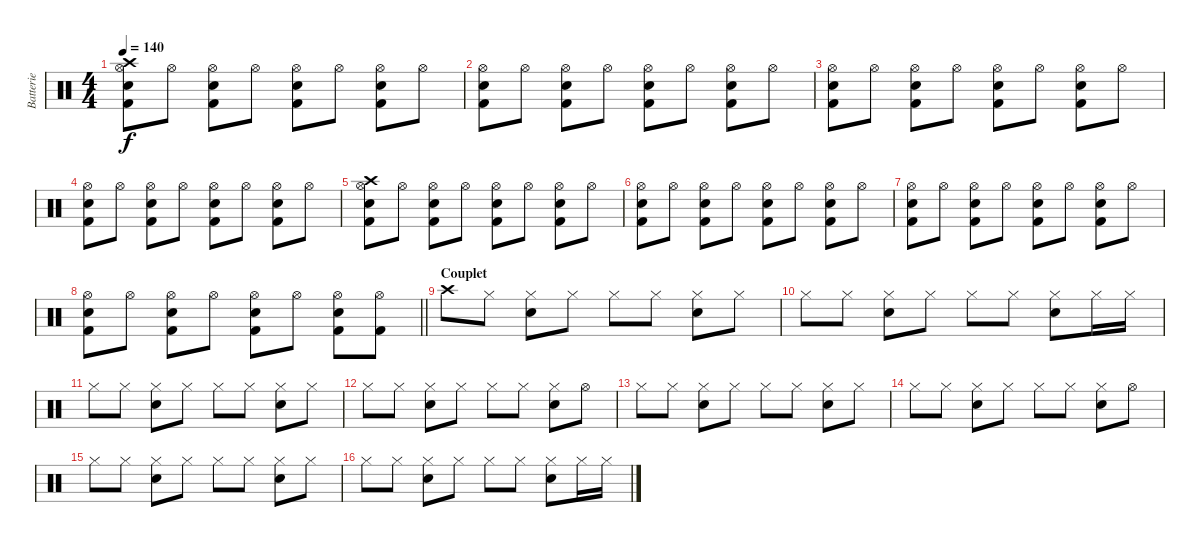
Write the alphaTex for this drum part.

\track ("Batterie" "Batterie") {instrument percussion}
\staff {score}
\articulation defaults
\ts (4 4)
\tempo 140
\clef neutral
\ks c
("Crash high (hit)" "Hi-Hat (open)" "Electric Snare (hit)" "Kick (hit) 2").8{dy f} "Hi-Hat (open)".8 ("Hi-Hat (open)" "Electric Snare (hit)" "Kick (hit) 2").8 "Hi-Hat (open)".8 ("Hi-Hat (open)" "Electric Snare (hit)" "Kick (hit) 2").8 "Hi-Hat (open)".8 ("Hi-Hat (open)" "Electric Snare (hit)" "Kick (hit) 2").8 "Hi-Hat (open)".8 |
("Hi-Hat (open)" "Electric Snare (hit)" "Kick (hit) 2").8 "Hi-Hat (open)".8 ("Hi-Hat (open)" "Electric Snare (hit)" "Kick (hit) 2").8 "Hi-Hat (open)".8 ("Hi-Hat (open)" "Electric Snare (hit)" "Kick (hit) 2").8 "Hi-Hat (open)".8 ("Hi-Hat (open)" "Electric Snare (hit)" "Kick (hit) 2").8 "Hi-Hat (open)".8 |
("Hi-Hat (open)" "Electric Snare (hit)" "Kick (hit) 2").8 "Hi-Hat (open)".8 ("Hi-Hat (open)" "Electric Snare (hit)" "Kick (hit) 2").8 "Hi-Hat (open)".8 ("Hi-Hat (open)" "Electric Snare (hit)" "Kick (hit) 2").8 "Hi-Hat (open)".8 ("Hi-Hat (open)" "Electric Snare (hit)" "Kick (hit) 2").8 "Hi-Hat (open)".8 |
("Hi-Hat (open)" "Electric Snare (hit)" "Kick (hit) 2").8 "Hi-Hat (open)".8 ("Hi-Hat (open)" "Electric Snare (hit)" "Kick (hit) 2").8 "Hi-Hat (open)".8 ("Hi-Hat (open)" "Electric Snare (hit)" "Kick (hit) 2").8 "Hi-Hat (open)".8 ("Hi-Hat (open)" "Electric Snare (hit)" "Kick (hit) 2").8 "Hi-Hat (open)".8 |
("Crash high (hit)" "Hi-Hat (open)" "Electric Snare (hit)" "Kick (hit) 2").8 "Hi-Hat (open)".8 ("Hi-Hat (open)" "Electric Snare (hit)" "Kick (hit) 2").8 "Hi-Hat (open)".8 ("Hi-Hat (open)" "Electric Snare (hit)" "Kick (hit) 2").8 "Hi-Hat (open)".8 ("Hi-Hat (open)" "Electric Snare (hit)" "Kick (hit) 2").8 "Hi-Hat (open)".8 |
("Hi-Hat (open)" "Electric Snare (hit)" "Kick (hit) 2").8 "Hi-Hat (open)".8 ("Hi-Hat (open)" "Electric Snare (hit)" "Kick (hit) 2").8 "Hi-Hat (open)".8 ("Hi-Hat (open)" "Electric Snare (hit)" "Kick (hit) 2").8 "Hi-Hat (open)".8 ("Hi-Hat (open)" "Electric Snare (hit)" "Kick (hit) 2").8 "Hi-Hat (open)".8 |
("Hi-Hat (open)" "Electric Snare (hit)" "Kick (hit) 2").8 "Hi-Hat (open)".8 ("Hi-Hat (open)" "Electric Snare (hit)" "Kick (hit) 2").8 "Hi-Hat (open)".8 ("Hi-Hat (open)" "Electric Snare (hit)" "Kick (hit) 2").8 "Hi-Hat (open)".8 ("Hi-Hat (open)" "Electric Snare (hit)" "Kick (hit) 2").8 "Hi-Hat (open)".8 |
\barLineRight lightlight
("Hi-Hat (open)" "Electric Snare (hit)" "Kick (hit) 2").8 "Hi-Hat (open)".8 ("Hi-Hat (open)" "Electric Snare (hit)" "Kick (hit) 2").8 "Hi-Hat (open)".8 ("Hi-Hat (open)" "Electric Snare (hit)" "Kick (hit) 2").8 "Hi-Hat (open)".8 ("Hi-Hat (open)" "Electric Snare (hit)" "Kick (hit) 2").8 ("Hi-Hat (open)" "Kick (hit) 2").8 |
\section ("" "Couplet")
"Crash high (hit)".8 "Hi-Hat (closed)".8 ("Hi-Hat (closed)" "Electric Snare (hit)").8 "Hi-Hat (closed)".8 "Hi-Hat (closed)".8 "Hi-Hat (closed)".8 ("Hi-Hat (closed)" "Electric Snare (hit)").8 "Hi-Hat (closed)".8 |
"Hi-Hat (closed)".8 "Hi-Hat (closed)".8 ("Hi-Hat (closed)" "Electric Snare (hit)").8 "Hi-Hat (closed)".8 "Hi-Hat (closed)".8 "Hi-Hat (closed)".8 ("Hi-Hat (closed)" "Electric Snare (hit)").8 "Hi-Hat (closed)".16 "Hi-Hat (closed)".16 |
"Hi-Hat (closed)".8 "Hi-Hat (closed)".8 ("Hi-Hat (closed)" "Electric Snare (hit)").8 "Hi-Hat (closed)".8 "Hi-Hat (closed)".8 "Hi-Hat (closed)".8 ("Hi-Hat (closed)" "Electric Snare (hit)").8 "Hi-Hat (closed)".8 |
"Hi-Hat (closed)".8 "Hi-Hat (closed)".8 ("Hi-Hat (closed)" "Electric Snare (hit)").8 "Hi-Hat (closed)".8 "Hi-Hat (closed)".8 "Hi-Hat (closed)".8 ("Hi-Hat (closed)" "Electric Snare (hit)").8 "Hi-Hat (open)".8 |
"Hi-Hat (closed)".8 "Hi-Hat (closed)".8 ("Hi-Hat (closed)" "Electric Snare (hit)").8 "Hi-Hat (closed)".8 "Hi-Hat (closed)".8 "Hi-Hat (closed)".8 ("Hi-Hat (closed)" "Electric Snare (hit)").8 "Hi-Hat (closed)".8 |
"Hi-Hat (closed)".8 "Hi-Hat (closed)".8 ("Hi-Hat (closed)" "Electric Snare (hit)").8 "Hi-Hat (closed)".8 "Hi-Hat (closed)".8 "Hi-Hat (closed)".8 ("Hi-Hat (closed)" "Electric Snare (hit)").8 "Hi-Hat (open)".8 |
"Hi-Hat (closed)".8 "Hi-Hat (closed)".8 ("Hi-Hat (closed)" "Electric Snare (hit)").8 "Hi-Hat (closed)".8 "Hi-Hat (closed)".8 "Hi-Hat (closed)".8 ("Hi-Hat (closed)" "Electric Snare (hit)").8 "Hi-Hat (closed)".8 |
"Hi-Hat (closed)".8 "Hi-Hat (closed)".8 ("Hi-Hat (closed)" "Electric Snare (hit)").8 "Hi-Hat (closed)".8 "Hi-Hat (closed)".8 "Hi-Hat (closed)".8 ("Hi-Hat (closed)" "Electric Snare (hit)").8 "Hi-Hat (closed)".16 "Hi-Hat (closed)".16
